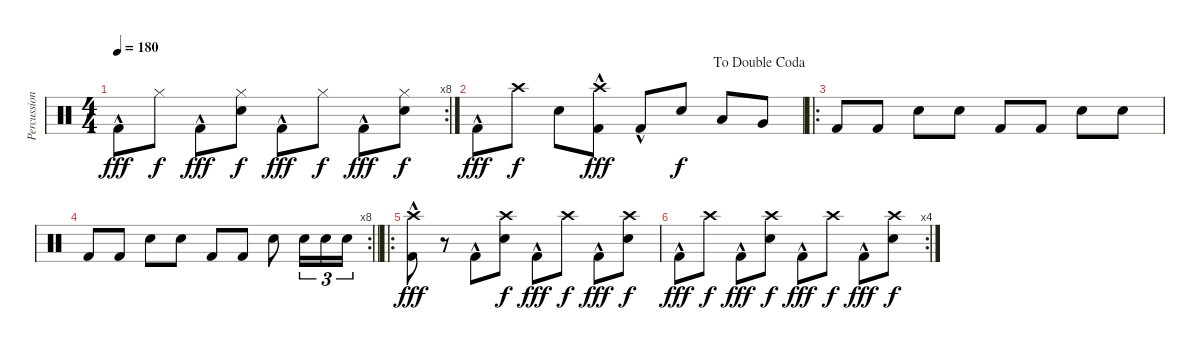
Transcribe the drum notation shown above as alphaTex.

\track ("Percussion" "Percussion") {instrument percussion}
\staff {score}
\articulation defaults
\rc 8
\ts (4 4)
\tempo 180
\clef neutral
\ks c "Kick (hit) 2"{hac}.8{dy fff} "Hi-Hat (closed)".8{dy f} "Kick (hit) 2"{hac}.8{dy fff}
("Hi-Hat (closed)" "Electric Snare (hit)").8{dy f} "Kick (hit) 2"{hac}.8{dy fff} "Hi-Hat (closed)".8{dy f} "Kick (hit) 2"{hac}.8{dy fff} ("Hi-Hat (closed)" "Electric Snare (hit)").8{dy f} |
\jump dadoublecoda "Kick (hit) 2"{hac}.8{dy fff} "Crash high (hit)".8{dy f} "Electric Snare (hit)".8
("Crash high (hit)" "Kick (hit) 2"{hac}).8{dy fff} "Kick (hit) 2"{hac}.8 "Electric Snare (hit)".8{dy f} "Low Tom (hit)".8 "Very Low Tom (hit)".8 |
\ro "Kick (hit) 2".8 "Kick (hit) 2".8 "Electric Snare (hit)".8 "Electric Snare (hit)".8 "Kick (hit) 2".8 "Kick (hit) 2".8 "Electric Snare (hit)".8 "Electric Snare (hit)".8
|
\rc 8
\barLineRight lightlight "Kick (hit) 2".8 "Kick (hit) 2".8 "Electric Snare (hit)".8 "Electric Snare (hit)".8 "Kick (hit) 2".8 "Kick (hit) 2".8 "Electric Snare (hit)".8 "Electric Snare (hit)".16{tu (3 2)} "Electric Snare (hit)".16{tu (3 2)} "Electric Snare (hit)".16{tu (3 2)}
|
\ro
("Crash high (hit)" "Kick (hit) 2"{hac}).8{dy fff} r.8 "Kick (hit) 2"{hac}.8 ("Crash high (hit)" "Electric Snare (hit)").8{dy f} "Kick (hit) 2"{hac}.8{dy fff} "Crash high (hit)".8{dy f} "Kick (hit) 2"{hac}.8{dy fff} ("Crash high (hit)" "Electric Snare (hit)").8{dy f} |
\rc 4 "Kick (hit) 2"{hac}.8{dy fff} "Crash high (hit)".8{dy f} "Kick (hit) 2"{hac}.8{dy fff}
("Crash high (hit)" "Electric Snare (hit)").8{dy f} "Kick (hit) 2"{hac}.8{dy fff} "Crash high (hit)".8{dy f} "Kick (hit) 2"{hac}.8{dy fff} ("Crash high (hit)" "Electric Snare (hit)").8{dy f}
